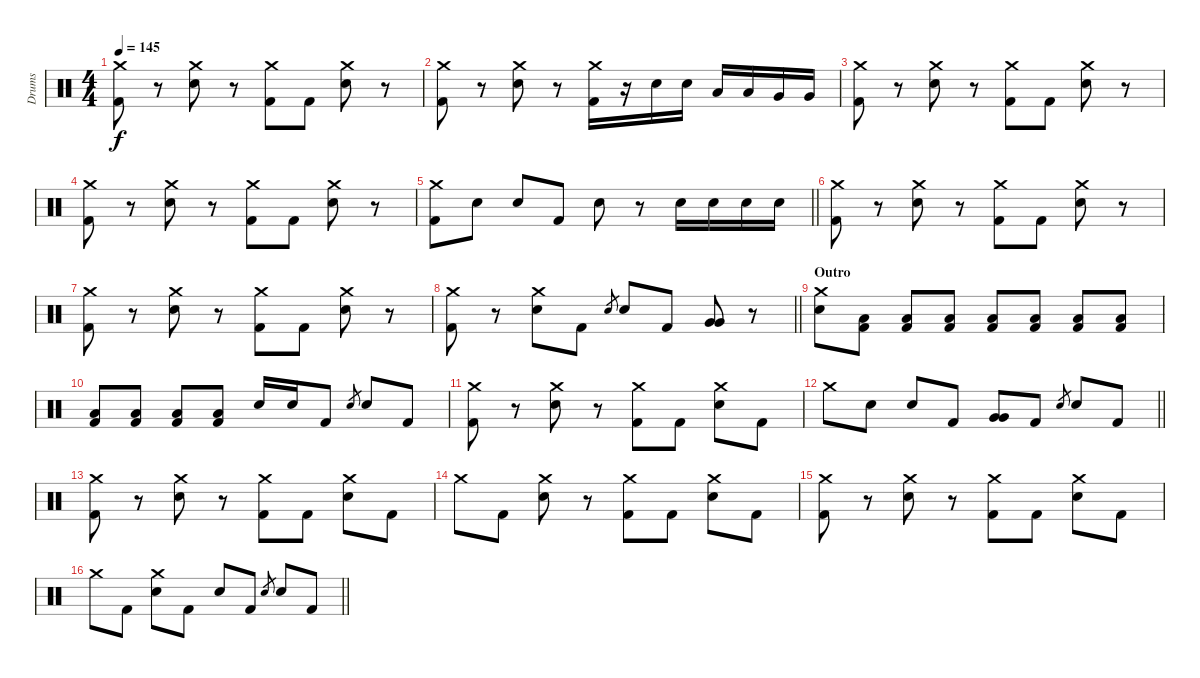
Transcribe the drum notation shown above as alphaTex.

\track ("Drums" "Drums") {instrument percussion}
\staff {score}
\articulation defaults
\ts (4 4)
\tempo 145
\clef neutral
\ks c
("Crash medium (hit)" "Kick (hit) 2").8{dy f} r.8 ("Crash medium (hit)" "Electric Snare (hit)").8 r.8 ("Crash medium (hit)" "Kick (hit) 2").8 "Kick (hit) 2".8 ("Crash medium (hit)" "Electric Snare (hit)").8 r.8 |
("Crash medium (hit)" "Kick (hit) 2").8 r.8 ("Crash medium (hit)" "Electric Snare (hit)").8 r.8 ("Crash medium (hit)" "Kick (hit) 2").16 r.16 "Electric Snare (hit)".16 "Electric Snare (hit)".16 "Low Tom (hit)".16 "Low Tom (hit)".16 "Very Low Tom (hit)".16 "Very Low Tom (hit)".16 |
("Crash medium (hit)" "Kick (hit) 2").8 r.8 ("Crash medium (hit)" "Electric Snare (hit)").8 r.8 ("Crash medium (hit)" "Kick (hit) 2").8 "Kick (hit) 2".8 ("Crash medium (hit)" "Electric Snare (hit)").8 r.8 |
("Crash medium (hit)" "Kick (hit) 2").8 r.8 ("Crash medium (hit)" "Electric Snare (hit)").8 r.8 ("Crash medium (hit)" "Kick (hit) 2").8 "Kick (hit) 2".8 ("Crash medium (hit)" "Electric Snare (hit)").8 r.8 |
\barLineRight lightlight
("Crash medium (hit)" "Kick (hit) 2").8 "Electric Snare (hit)".8 "Electric Snare (hit)".8 "Kick (hit) 2".8 "Electric Snare (hit)".8 r.8 "Electric Snare (hit)".16 "Electric Snare (hit)".16 "Electric Snare (hit)".16 "Electric Snare (hit)".16 |
("Crash medium (hit)" "Kick (hit) 2").8 r.8 ("Crash medium (hit)" "Electric Snare (hit)").8 r.8 ("Crash medium (hit)" "Kick (hit) 2").8 "Kick (hit) 2".8 ("Crash medium (hit)" "Electric Snare (hit)").8 r.8 |
("Crash medium (hit)" "Kick (hit) 2").8 r.8 ("Crash medium (hit)" "Electric Snare (hit)").8 r.8 ("Crash medium (hit)" "Kick (hit) 2").8 "Kick (hit) 2".8 ("Crash medium (hit)" "Electric Snare (hit)").8 r.8 |
\barLineRight lightlight
("Crash medium (hit)" "Kick (hit) 2").8 r.8 ("Crash medium (hit)" "Electric Snare (hit)").8 "Kick (hit) 2".8 "Electric Snare (hit)".8{gr} "Electric Snare (hit)".8 "Kick (hit) 2".8 ("Very Low Tom (hit)" "Very Low Tom (hit)").8 r.8 |
\section ("" "Outro")
("Crash medium (hit)" "Electric Snare (hit)").8 ("Low Floor Tom (hit)" "Kick (hit) 2").8 ("Low Floor Tom (hit)" "Kick (hit) 2").8 ("Low Floor Tom (hit)" "Kick (hit) 2").8 ("Low Floor Tom (hit)" "Kick (hit) 2").8 ("Low Floor Tom (hit)" "Kick (hit) 2").8 ("Low Floor Tom (hit)" "Kick (hit) 2").8 ("Low Floor Tom (hit)" "Kick (hit) 2").8 |
("Low Floor Tom (hit)" "Kick (hit) 2").8 ("Low Floor Tom (hit)" "Kick (hit) 2").8 ("Low Floor Tom (hit)" "Kick (hit) 2").8 ("Low Floor Tom (hit)" "Kick (hit) 2").8 "Electric Snare (hit)".16 "Electric Snare (hit)".16 "Kick (hit) 2".8 "Electric Snare (hit)".8{gr} "Electric Snare (hit)".8 "Kick (hit) 2".8 |
("Crash medium (hit)" "Kick (hit) 2").8 r.8 ("Crash medium (hit)" "Electric Snare (hit)").8 r.8 ("Crash medium (hit)" "Kick (hit) 2").8 "Kick (hit) 2".8 ("Crash medium (hit)" "Electric Snare (hit)").8 "Kick (hit) 2".8 |
\barLineRight lightlight "Crash medium (hit)".8 "Electric Snare (hit)".8 "Electric Snare (hit)".8 "Kick (hit) 2".8
("Very Low Tom (hit)" "Very Low Tom (hit)").8 "Kick (hit) 2".8 "Electric Snare (hit)".8{gr} "Electric Snare (hit)".8 "Kick (hit) 2".8 |
("Crash medium (hit)" "Kick (hit) 2").8 r.8 ("Crash medium (hit)" "Electric Snare (hit)").8 r.8 ("Crash medium (hit)" "Kick (hit) 2").8 "Kick (hit) 2".8 ("Crash medium (hit)" "Electric Snare (hit)").8 "Kick (hit) 2".8 |
"Crash medium (hit)".8 "Kick (hit) 2".8 ("Crash medium (hit)" "Electric Snare (hit)").8 r.8 ("Crash medium (hit)" "Kick (hit) 2").8 "Kick (hit) 2".8 ("Crash medium (hit)" "Electric Snare (hit)").8 "Kick (hit) 2".8 |
("Crash medium (hit)" "Kick (hit) 2").8 r.8 ("Crash medium (hit)" "Electric Snare (hit)").8 r.8 ("Crash medium (hit)" "Kick (hit) 2").8 "Kick (hit) 2".8 ("Crash medium (hit)" "Electric Snare (hit)").8 "Kick (hit) 2".8 |
\barLineRight lightlight "Crash medium (hit)".8 "Kick (hit) 2".8
("Crash medium (hit)" "Electric Snare (hit)").8 "Kick (hit) 2".8 "Electric Snare (hit)".8 "Kick (hit) 2".8 "Electric Snare (hit)".8{gr} "Electric Snare (hit)".8 "Kick (hit) 2".8
